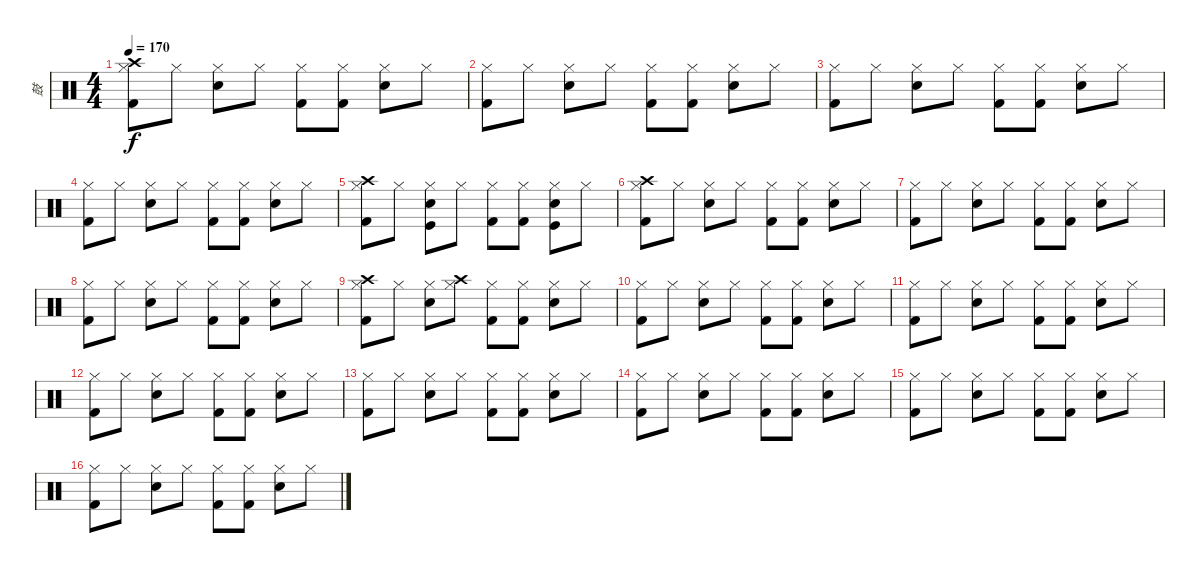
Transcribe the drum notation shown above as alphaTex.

\track ("鼓" "鼓") {instrument percussion}
\staff {score}
\articulation defaults
\ts (4 4)
\tempo 170
\clef neutral
\ks c
("Crash high (hit)" "Hi-Hat (closed)" "Kick (hit) 2").8{dy f} "Hi-Hat (closed)".8 ("Hi-Hat (closed)" "Electric Snare (hit)").8 "Hi-Hat (closed)".8 ("Hi-Hat (closed)" "Kick (hit) 2").8 ("Hi-Hat (closed)" "Kick (hit) 2").8 ("Hi-Hat (closed)" "Electric Snare (hit)").8 "Hi-Hat (closed)".8 |
("Hi-Hat (closed)" "Kick (hit) 2").8 "Hi-Hat (closed)".8 ("Hi-Hat (closed)" "Electric Snare (hit)").8 "Hi-Hat (closed)".8 ("Hi-Hat (closed)" "Kick (hit) 2").8 ("Hi-Hat (closed)" "Kick (hit) 2").8 ("Hi-Hat (closed)" "Electric Snare (hit)").8 "Hi-Hat (closed)".8 |
("Hi-Hat (closed)" "Kick (hit) 2").8 "Hi-Hat (closed)".8 ("Hi-Hat (closed)" "Electric Snare (hit)").8 "Hi-Hat (closed)".8 ("Hi-Hat (closed)" "Kick (hit) 2").8 ("Hi-Hat (closed)" "Kick (hit) 2").8 ("Hi-Hat (closed)" "Electric Snare (hit)").8 "Hi-Hat (closed)".8 |
("Hi-Hat (closed)" "Kick (hit) 2").8 "Hi-Hat (closed)".8 ("Hi-Hat (closed)" "Electric Snare (hit)").8 "Hi-Hat (closed)".8 ("Hi-Hat (closed)" "Kick (hit) 2").8 ("Hi-Hat (closed)" "Kick (hit) 2").8 ("Hi-Hat (closed)" "Electric Snare (hit)").8 "Hi-Hat (closed)".8 |
("Crash high (hit)" "Hi-Hat (closed)" "Kick (hit) 2").8 "Hi-Hat (closed)".8 ("Hi-Hat (closed)" "Electric Snare (hit)" "Kick (hit)").8 "Hi-Hat (closed)".8 ("Hi-Hat (closed)" "Kick (hit) 2").8 ("Hi-Hat (closed)" "Kick (hit) 2").8 ("Hi-Hat (closed)" "Electric Snare (hit)" "Kick (hit)").8 "Hi-Hat (closed)".8 |
("Crash high (hit)" "Hi-Hat (closed)" "Kick (hit) 2").8 "Hi-Hat (closed)".8 ("Hi-Hat (closed)" "Electric Snare (hit)").8 "Hi-Hat (closed)".8 ("Hi-Hat (closed)" "Kick (hit) 2").8 ("Hi-Hat (closed)" "Kick (hit) 2").8 ("Hi-Hat (closed)" "Electric Snare (hit)").8 "Hi-Hat (closed)".8 |
("Hi-Hat (closed)" "Kick (hit) 2").8 "Hi-Hat (closed)".8 ("Hi-Hat (closed)" "Electric Snare (hit)").8 "Hi-Hat (closed)".8 ("Hi-Hat (closed)" "Kick (hit) 2").8 ("Hi-Hat (closed)" "Kick (hit) 2").8 ("Hi-Hat (closed)" "Electric Snare (hit)").8 "Hi-Hat (closed)".8 |
("Hi-Hat (closed)" "Kick (hit) 2").8 "Hi-Hat (closed)".8 ("Hi-Hat (closed)" "Electric Snare (hit)").8 "Hi-Hat (closed)".8 ("Hi-Hat (closed)" "Kick (hit) 2").8 ("Hi-Hat (closed)" "Kick (hit) 2").8 ("Hi-Hat (closed)" "Electric Snare (hit)").8 "Hi-Hat (closed)".8 |
("Crash high (hit)" "Hi-Hat (closed)" "Kick (hit) 2").8 "Hi-Hat (closed)".8 ("Hi-Hat (closed)" "Electric Snare (hit)").8 ("Crash high (hit)" "Hi-Hat (closed)").8 ("Hi-Hat (closed)" "Kick (hit) 2").8 ("Hi-Hat (closed)" "Kick (hit) 2").8 ("Hi-Hat (closed)" "Electric Snare (hit)").8 "Hi-Hat (closed)".8 |
("Hi-Hat (closed)" "Kick (hit) 2").8 "Hi-Hat (closed)".8 ("Hi-Hat (closed)" "Electric Snare (hit)").8 "Hi-Hat (closed)".8 ("Hi-Hat (closed)" "Kick (hit) 2").8 ("Hi-Hat (closed)" "Kick (hit) 2").8 ("Hi-Hat (closed)" "Electric Snare (hit)").8 "Hi-Hat (closed)".8 |
("Hi-Hat (closed)" "Kick (hit) 2").8 "Hi-Hat (closed)".8 ("Hi-Hat (closed)" "Electric Snare (hit)").8 "Hi-Hat (closed)".8 ("Hi-Hat (closed)" "Kick (hit) 2").8 ("Hi-Hat (closed)" "Kick (hit) 2").8 ("Hi-Hat (closed)" "Electric Snare (hit)").8 "Hi-Hat (closed)".8 |
("Hi-Hat (closed)" "Kick (hit) 2").8 "Hi-Hat (closed)".8 ("Hi-Hat (closed)" "Electric Snare (hit)").8 "Hi-Hat (closed)".8 ("Hi-Hat (closed)" "Kick (hit) 2").8 ("Hi-Hat (closed)" "Kick (hit) 2").8 ("Hi-Hat (closed)" "Electric Snare (hit)").8 "Hi-Hat (closed)".8 |
("Hi-Hat (closed)" "Kick (hit) 2").8 "Hi-Hat (closed)".8 ("Hi-Hat (closed)" "Electric Snare (hit)").8 "Hi-Hat (closed)".8 ("Hi-Hat (closed)" "Kick (hit) 2").8 ("Hi-Hat (closed)" "Kick (hit) 2").8 ("Hi-Hat (closed)" "Electric Snare (hit)").8 "Hi-Hat (closed)".8 |
("Hi-Hat (closed)" "Kick (hit) 2").8 "Hi-Hat (closed)".8 ("Hi-Hat (closed)" "Electric Snare (hit)").8 "Hi-Hat (closed)".8 ("Hi-Hat (closed)" "Kick (hit) 2").8 ("Hi-Hat (closed)" "Kick (hit) 2").8 ("Hi-Hat (closed)" "Electric Snare (hit)").8 "Hi-Hat (closed)".8 |
("Hi-Hat (closed)" "Kick (hit) 2").8 "Hi-Hat (closed)".8 ("Hi-Hat (closed)" "Electric Snare (hit)").8 "Hi-Hat (closed)".8 ("Hi-Hat (closed)" "Kick (hit) 2").8 ("Hi-Hat (closed)" "Kick (hit) 2").8 ("Hi-Hat (closed)" "Electric Snare (hit)").8 "Hi-Hat (closed)".8 |
("Hi-Hat (closed)" "Kick (hit) 2").8 "Hi-Hat (closed)".8 ("Hi-Hat (closed)" "Electric Snare (hit)").8 "Hi-Hat (closed)".8 ("Hi-Hat (closed)" "Kick (hit) 2").8 ("Hi-Hat (closed)" "Kick (hit) 2").8 ("Hi-Hat (closed)" "Electric Snare (hit)").8 "Hi-Hat (closed)".8
